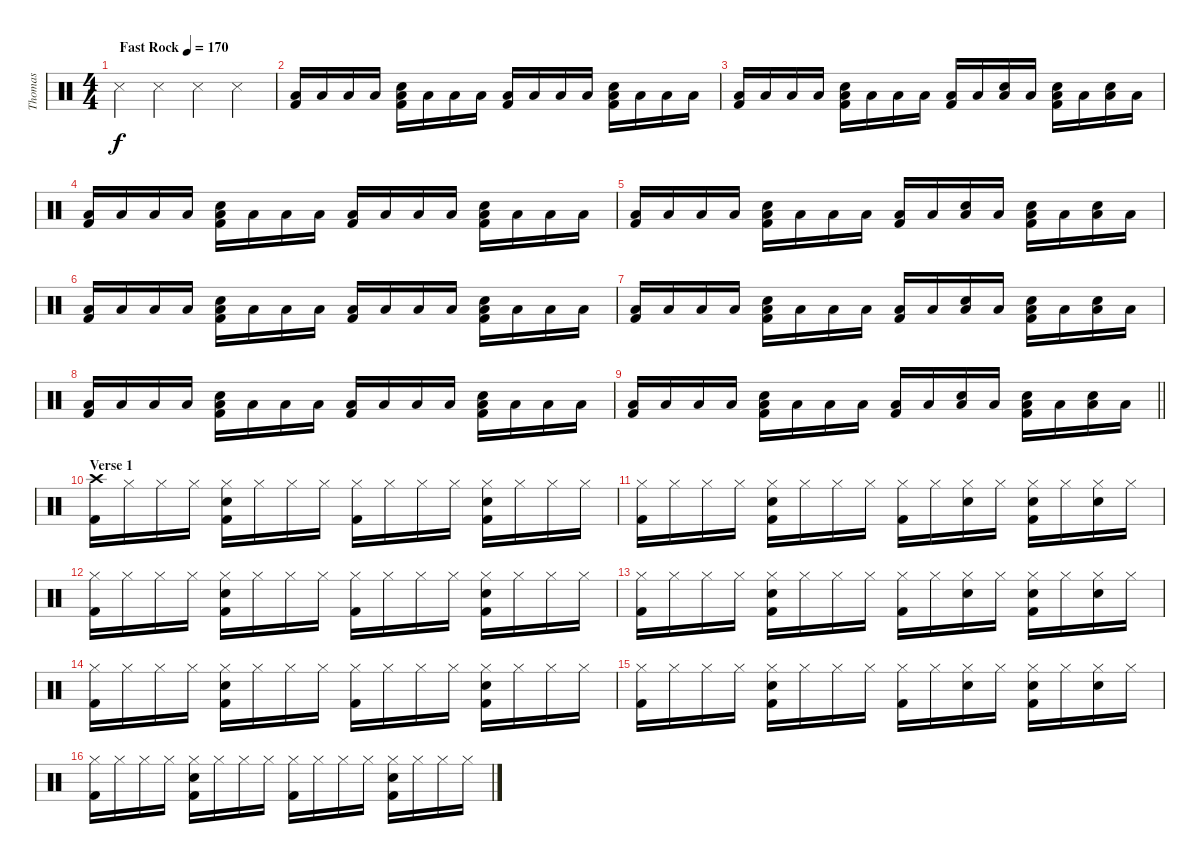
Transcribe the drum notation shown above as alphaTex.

\track ("Thomas" "Thomas") {instrument percussion}
\staff {score}
\articulation defaults
\ts (4 4)
\tempo (170 "Fast Rock")
\clef neutral
\ks c "Metronome (hit)".4{dy f} "Metronome (hit)".4 "Metronome (hit)".4 "Metronome (hit)".4
|
("Low Floor Tom (hit)" "Kick (hit) 2").16 "Low Floor Tom (hit)".16 "Low Floor Tom (hit)".16 "Low Floor Tom (hit)".16 ("Low Floor Tom (hit)" "Snare (hit) 2" "Kick (hit) 2").16 "Low Floor Tom (hit)".16 "Low Floor Tom (hit)".16 "Low Floor Tom (hit)".16 ("Low Floor Tom (hit)" "Kick (hit) 2").16 "Low Floor Tom (hit)".16 "Low Floor Tom (hit)".16 "Low Floor Tom (hit)".16 ("Low Floor Tom (hit)" "Snare (hit) 2" "Kick (hit) 2").16 "Low Floor Tom (hit)".16 "Low Floor Tom (hit)".16 "Low Floor Tom (hit)".16 |
("Low Floor Tom (hit)" "Kick (hit) 2").16 "Low Floor Tom (hit)".16 "Low Floor Tom (hit)".16 "Low Floor Tom (hit)".16 ("Low Floor Tom (hit)" "Snare (hit) 2" "Kick (hit) 2").16 "Low Floor Tom (hit)".16 "Low Floor Tom (hit)".16 "Low Floor Tom (hit)".16 ("Low Floor Tom (hit)" "Kick (hit) 2").16 "Low Floor Tom (hit)".16 ("Low Floor Tom (hit)" "Snare (hit) 2").16 "Low Floor Tom (hit)".16 ("Low Floor Tom (hit)" "Snare (hit) 2" "Kick (hit) 2").16 "Low Floor Tom (hit)".16 ("Low Floor Tom (hit)" "Snare (hit) 2").16 "Low Floor Tom (hit)".16 |
("Low Floor Tom (hit)" "Kick (hit) 2").16 "Low Floor Tom (hit)".16 "Low Floor Tom (hit)".16 "Low Floor Tom (hit)".16 ("Low Floor Tom (hit)" "Snare (hit) 2" "Kick (hit) 2").16 "Low Floor Tom (hit)".16 "Low Floor Tom (hit)".16 "Low Floor Tom (hit)".16 ("Low Floor Tom (hit)" "Kick (hit) 2").16 "Low Floor Tom (hit)".16 "Low Floor Tom (hit)".16 "Low Floor Tom (hit)".16 ("Low Floor Tom (hit)" "Snare (hit) 2" "Kick (hit) 2").16 "Low Floor Tom (hit)".16 "Low Floor Tom (hit)".16 "Low Floor Tom (hit)".16 |
("Low Floor Tom (hit)" "Kick (hit) 2").16 "Low Floor Tom (hit)".16 "Low Floor Tom (hit)".16 "Low Floor Tom (hit)".16 ("Low Floor Tom (hit)" "Snare (hit) 2" "Kick (hit) 2").16 "Low Floor Tom (hit)".16 "Low Floor Tom (hit)".16 "Low Floor Tom (hit)".16 ("Low Floor Tom (hit)" "Kick (hit) 2").16 "Low Floor Tom (hit)".16 ("Low Floor Tom (hit)" "Snare (hit) 2").16 "Low Floor Tom (hit)".16 ("Low Floor Tom (hit)" "Snare (hit) 2" "Kick (hit) 2").16 "Low Floor Tom (hit)".16 ("Low Floor Tom (hit)" "Snare (hit) 2").16 "Low Floor Tom (hit)".16 |
("Low Floor Tom (hit)" "Kick (hit) 2").16 "Low Floor Tom (hit)".16 "Low Floor Tom (hit)".16 "Low Floor Tom (hit)".16 ("Low Floor Tom (hit)" "Snare (hit) 2" "Kick (hit) 2").16 "Low Floor Tom (hit)".16 "Low Floor Tom (hit)".16 "Low Floor Tom (hit)".16 ("Low Floor Tom (hit)" "Kick (hit) 2").16 "Low Floor Tom (hit)".16 "Low Floor Tom (hit)".16 "Low Floor Tom (hit)".16 ("Low Floor Tom (hit)" "Snare (hit) 2" "Kick (hit) 2").16 "Low Floor Tom (hit)".16 "Low Floor Tom (hit)".16 "Low Floor Tom (hit)".16 |
("Low Floor Tom (hit)" "Kick (hit) 2").16 "Low Floor Tom (hit)".16 "Low Floor Tom (hit)".16 "Low Floor Tom (hit)".16 ("Low Floor Tom (hit)" "Snare (hit) 2" "Kick (hit) 2").16 "Low Floor Tom (hit)".16 "Low Floor Tom (hit)".16 "Low Floor Tom (hit)".16 ("Low Floor Tom (hit)" "Kick (hit) 2").16 "Low Floor Tom (hit)".16 ("Low Floor Tom (hit)" "Snare (hit) 2").16 "Low Floor Tom (hit)".16 ("Low Floor Tom (hit)" "Snare (hit) 2" "Kick (hit) 2").16 "Low Floor Tom (hit)".16 ("Low Floor Tom (hit)" "Snare (hit) 2").16 "Low Floor Tom (hit)".16 |
("Low Floor Tom (hit)" "Kick (hit) 2").16 "Low Floor Tom (hit)".16 "Low Floor Tom (hit)".16 "Low Floor Tom (hit)".16 ("Low Floor Tom (hit)" "Snare (hit) 2" "Kick (hit) 2").16 "Low Floor Tom (hit)".16 "Low Floor Tom (hit)".16 "Low Floor Tom (hit)".16 ("Low Floor Tom (hit)" "Kick (hit) 2").16 "Low Floor Tom (hit)".16 "Low Floor Tom (hit)".16 "Low Floor Tom (hit)".16 ("Low Floor Tom (hit)" "Snare (hit) 2" "Kick (hit) 2").16 "Low Floor Tom (hit)".16 "Low Floor Tom (hit)".16 "Low Floor Tom (hit)".16 |
\barLineRight lightlight
("Low Floor Tom (hit)" "Kick (hit) 2").16 "Low Floor Tom (hit)".16 "Low Floor Tom (hit)".16 "Low Floor Tom (hit)".16 ("Low Floor Tom (hit)" "Snare (hit) 2" "Kick (hit) 2").16 "Low Floor Tom (hit)".16 "Low Floor Tom (hit)".16 "Low Floor Tom (hit)".16 ("Low Floor Tom (hit)" "Kick (hit) 2").16 "Low Floor Tom (hit)".16 ("Low Floor Tom (hit)" "Snare (hit) 2").16 "Low Floor Tom (hit)".16 ("Low Floor Tom (hit)" "Snare (hit) 2" "Kick (hit) 2").16 "Low Floor Tom (hit)".16 ("Low Floor Tom (hit)" "Snare (hit) 2").16 "Low Floor Tom (hit)".16 |
\section ("" "Verse 1")
("Crash high (hit)" "Kick (hit) 2").16 "Hi-Hat (closed)".16 "Hi-Hat (closed)".16 "Hi-Hat (closed)".16 ("Hi-Hat (closed)" "Snare (hit) 2" "Kick (hit) 2").16 "Hi-Hat (closed)".16 "Hi-Hat (closed)".16 "Hi-Hat (closed)".16 ("Hi-Hat (closed)" "Kick (hit) 2").16 "Hi-Hat (closed)".16 "Hi-Hat (closed)".16 "Hi-Hat (closed)".16 ("Hi-Hat (closed)" "Snare (hit) 2" "Kick (hit) 2").16 "Hi-Hat (closed)".16 "Hi-Hat (closed)".16 "Hi-Hat (closed)".16 |
("Hi-Hat (closed)" "Kick (hit) 2").16 "Hi-Hat (closed)".16 "Hi-Hat (closed)".16 "Hi-Hat (closed)".16 ("Hi-Hat (closed)" "Snare (hit) 2" "Kick (hit) 2").16 "Hi-Hat (closed)".16 "Hi-Hat (closed)".16 "Hi-Hat (closed)".16 ("Hi-Hat (closed)" "Kick (hit) 2").16 "Hi-Hat (closed)".16 ("Hi-Hat (closed)" "Snare (hit) 2").16 "Hi-Hat (closed)".16 ("Hi-Hat (closed)" "Snare (hit) 2" "Kick (hit) 2").16 "Hi-Hat (closed)".16 ("Hi-Hat (closed)" "Snare (hit) 2").16 "Hi-Hat (closed)".16 |
("Hi-Hat (closed)" "Kick (hit) 2").16 "Hi-Hat (closed)".16 "Hi-Hat (closed)".16 "Hi-Hat (closed)".16 ("Hi-Hat (closed)" "Snare (hit) 2" "Kick (hit) 2").16 "Hi-Hat (closed)".16 "Hi-Hat (closed)".16 "Hi-Hat (closed)".16 ("Hi-Hat (closed)" "Kick (hit) 2").16 "Hi-Hat (closed)".16 "Hi-Hat (closed)".16 "Hi-Hat (closed)".16 ("Hi-Hat (closed)" "Snare (hit) 2" "Kick (hit) 2").16 "Hi-Hat (closed)".16 "Hi-Hat (closed)".16 "Hi-Hat (closed)".16 |
("Hi-Hat (closed)" "Kick (hit) 2").16 "Hi-Hat (closed)".16 "Hi-Hat (closed)".16 "Hi-Hat (closed)".16 ("Hi-Hat (closed)" "Snare (hit) 2" "Kick (hit) 2").16 "Hi-Hat (closed)".16 "Hi-Hat (closed)".16 "Hi-Hat (closed)".16 ("Hi-Hat (closed)" "Kick (hit) 2").16 "Hi-Hat (closed)".16 ("Hi-Hat (closed)" "Snare (hit) 2").16 "Hi-Hat (closed)".16 ("Hi-Hat (closed)" "Snare (hit) 2" "Kick (hit) 2").16 "Hi-Hat (closed)".16 ("Hi-Hat (closed)" "Snare (hit) 2").16 "Hi-Hat (closed)".16 |
("Hi-Hat (closed)" "Kick (hit) 2").16 "Hi-Hat (closed)".16 "Hi-Hat (closed)".16 "Hi-Hat (closed)".16 ("Hi-Hat (closed)" "Snare (hit) 2" "Kick (hit) 2").16 "Hi-Hat (closed)".16 "Hi-Hat (closed)".16 "Hi-Hat (closed)".16 ("Hi-Hat (closed)" "Kick (hit) 2").16 "Hi-Hat (closed)".16 "Hi-Hat (closed)".16 "Hi-Hat (closed)".16 ("Hi-Hat (closed)" "Snare (hit) 2" "Kick (hit) 2").16 "Hi-Hat (closed)".16 "Hi-Hat (closed)".16 "Hi-Hat (closed)".16 |
("Hi-Hat (closed)" "Kick (hit) 2").16 "Hi-Hat (closed)".16 "Hi-Hat (closed)".16 "Hi-Hat (closed)".16 ("Hi-Hat (closed)" "Snare (hit) 2" "Kick (hit) 2").16 "Hi-Hat (closed)".16 "Hi-Hat (closed)".16 "Hi-Hat (closed)".16 ("Hi-Hat (closed)" "Kick (hit) 2").16 "Hi-Hat (closed)".16 ("Hi-Hat (closed)" "Snare (hit) 2").16 "Hi-Hat (closed)".16 ("Hi-Hat (closed)" "Snare (hit) 2" "Kick (hit) 2").16 "Hi-Hat (closed)".16 ("Hi-Hat (closed)" "Snare (hit) 2").16 "Hi-Hat (closed)".16 |
("Hi-Hat (closed)" "Kick (hit) 2").16 "Hi-Hat (closed)".16 "Hi-Hat (closed)".16 "Hi-Hat (closed)".16 ("Hi-Hat (closed)" "Snare (hit) 2" "Kick (hit) 2").16 "Hi-Hat (closed)".16 "Hi-Hat (closed)".16 "Hi-Hat (closed)".16 ("Hi-Hat (closed)" "Kick (hit) 2").16 "Hi-Hat (closed)".16 "Hi-Hat (closed)".16 "Hi-Hat (closed)".16 ("Hi-Hat (closed)" "Snare (hit) 2" "Kick (hit) 2").16 "Hi-Hat (closed)".16 "Hi-Hat (closed)".16 "Hi-Hat (closed)".16
